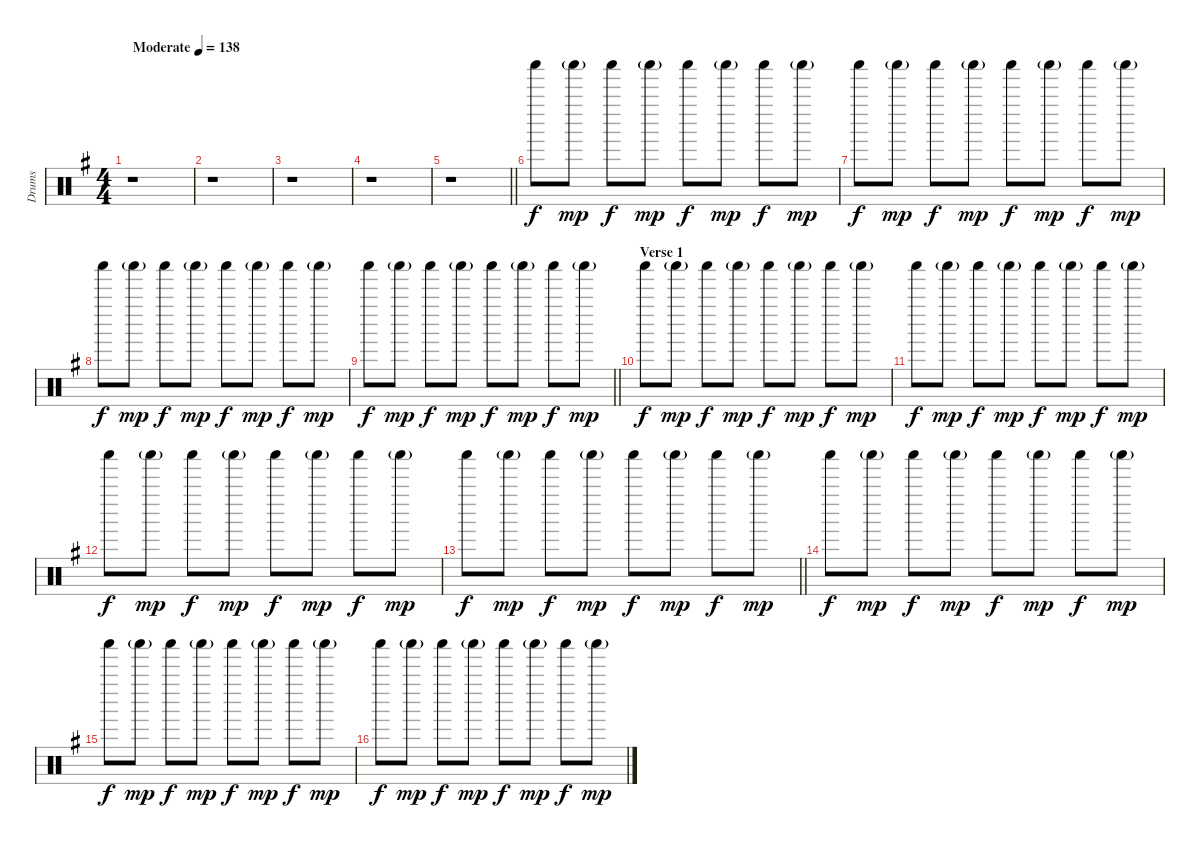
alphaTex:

\track ("Drums" "Drums") {instrument percussion}
\staff {score}
\articulation defaults
\ts (4 4)
\tempo (138 "Moderate")
\clef neutral
\ks g
r.1{dy f} |
r.1 |
r.1 |
r.1 |
\barLineRight lightlight
r.1 |
\section ("" "")
"Shaker (hit)".8 "Shaker (hit)"{g}.8{dy mp} "Shaker (hit)".8{dy f} "Shaker (hit)"{g}.8{dy mp} "Shaker (hit)".8{dy f} "Shaker (hit)"{g}.8{dy mp} "Shaker (hit)".8{dy f} "Shaker (hit)"{g}.8{dy mp} |
"Shaker (hit)".8{dy f} "Shaker (hit)"{g}.8{dy mp} "Shaker (hit)".8{dy f} "Shaker (hit)"{g}.8{dy mp} "Shaker (hit)".8{dy f} "Shaker (hit)"{g}.8{dy mp} "Shaker (hit)".8{dy f} "Shaker (hit)"{g}.8{dy mp} |
"Shaker (hit)".8{dy f} "Shaker (hit)"{g}.8{dy mp} "Shaker (hit)".8{dy f} "Shaker (hit)"{g}.8{dy mp} "Shaker (hit)".8{dy f} "Shaker (hit)"{g}.8{dy mp} "Shaker (hit)".8{dy f} "Shaker (hit)"{g}.8{dy mp} |
\barLineRight lightlight "Shaker (hit)".8{dy f} "Shaker (hit)"{g}.8{dy mp} "Shaker (hit)".8{dy f} "Shaker (hit)"{g}.8{dy mp} "Shaker (hit)".8{dy f} "Shaker (hit)"{g}.8{dy mp} "Shaker (hit)".8{dy f} "Shaker (hit)"{g}.8{dy mp}
|
\section ("" "Verse 1")
"Shaker (hit)".8{dy f} "Shaker (hit)"{g}.8{dy mp} "Shaker (hit)".8{dy f} "Shaker (hit)"{g}.8{dy mp} "Shaker (hit)".8{dy f} "Shaker (hit)"{g}.8{dy mp} "Shaker (hit)".8{dy f} "Shaker (hit)"{g}.8{dy mp} |
"Shaker (hit)".8{dy f} "Shaker (hit)"{g}.8{dy mp} "Shaker (hit)".8{dy f} "Shaker (hit)"{g}.8{dy mp} "Shaker (hit)".8{dy f} "Shaker (hit)"{g}.8{dy mp} "Shaker (hit)".8{dy f} "Shaker (hit)"{g}.8{dy mp} |
"Shaker (hit)".8{dy f} "Shaker (hit)"{g}.8{dy mp} "Shaker (hit)".8{dy f} "Shaker (hit)"{g}.8{dy mp} "Shaker (hit)".8{dy f} "Shaker (hit)"{g}.8{dy mp} "Shaker (hit)".8{dy f} "Shaker (hit)"{g}.8{dy mp} |
\barLineRight lightlight "Shaker (hit)".8{dy f} "Shaker (hit)"{g}.8{dy mp} "Shaker (hit)".8{dy f} "Shaker (hit)"{g}.8{dy mp} "Shaker (hit)".8{dy f} "Shaker (hit)"{g}.8{dy mp} "Shaker (hit)".8{dy f} "Shaker (hit)"{g}.8{dy mp}
|
"Shaker (hit)".8{dy f} "Shaker (hit)"{g}.8{dy mp} "Shaker (hit)".8{dy f} "Shaker (hit)"{g}.8{dy mp} "Shaker (hit)".8{dy f} "Shaker (hit)"{g}.8{dy mp} "Shaker (hit)".8{dy f} "Shaker (hit)"{g}.8{dy mp} |
"Shaker (hit)".8{dy f} "Shaker (hit)"{g}.8{dy mp} "Shaker (hit)".8{dy f} "Shaker (hit)"{g}.8{dy mp} "Shaker (hit)".8{dy f} "Shaker (hit)"{g}.8{dy mp} "Shaker (hit)".8{dy f} "Shaker (hit)"{g}.8{dy mp} |
"Shaker (hit)".8{dy f} "Shaker (hit)"{g}.8{dy mp} "Shaker (hit)".8{dy f} "Shaker (hit)"{g}.8{dy mp} "Shaker (hit)".8{dy f} "Shaker (hit)"{g}.8{dy mp} "Shaker (hit)".8{dy f} "Shaker (hit)"{g}.8{dy mp}
